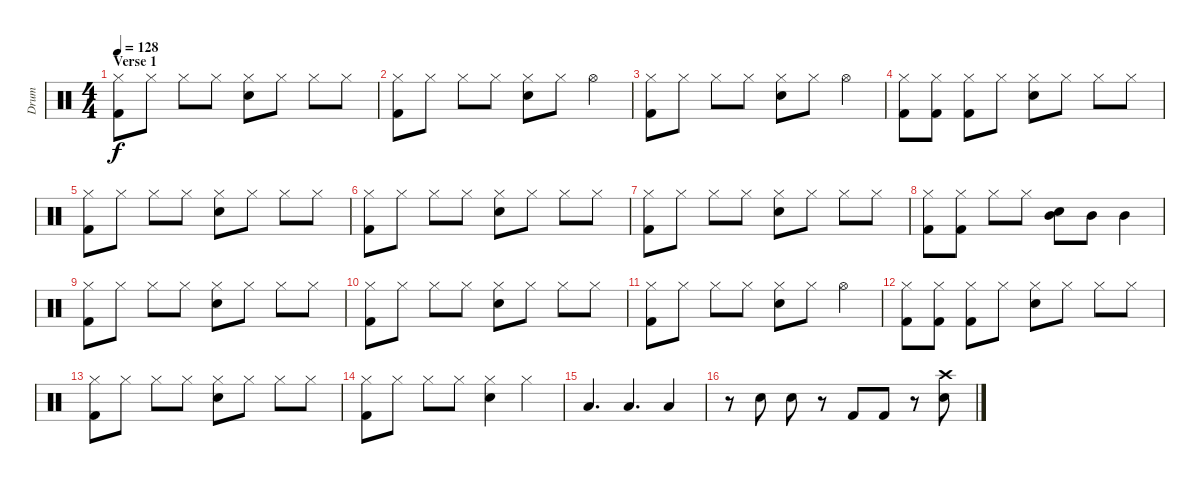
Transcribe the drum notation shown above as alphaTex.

\track ("Drum" "Drum") {instrument percussion}
\staff {score}
\articulation defaults
\ts (4 4)
\section ("" "Verse 1")
\tempo 128
\clef neutral
\ks c
("Hi-Hat (closed)" "Kick (hit) 2").8{dy f} "Hi-Hat (closed)".8 "Hi-Hat (closed)".8 "Hi-Hat (closed)".8 ("Hi-Hat (closed)" "Snare (hit) 2").8 "Hi-Hat (closed)".8 "Hi-Hat (closed)".8 "Hi-Hat (closed)".8 |
("Hi-Hat (closed)" "Kick (hit) 2").8 "Hi-Hat (closed)".8 "Hi-Hat (closed)".8 "Hi-Hat (closed)".8 ("Hi-Hat (closed)" "Snare (hit) 2").8 "Hi-Hat (closed)".8 "Hi-Hat (open)".4 |
("Hi-Hat (closed)" "Kick (hit) 2").8 "Hi-Hat (closed)".8 "Hi-Hat (closed)".8 "Hi-Hat (closed)".8 ("Hi-Hat (closed)" "Snare (hit) 2").8 "Hi-Hat (closed)".8 "Hi-Hat (open)".4 |
("Hi-Hat (closed)" "Kick (hit) 2").8 ("Hi-Hat (closed)" "Kick (hit) 2").8 ("Hi-Hat (closed)" "Kick (hit) 2").8 "Hi-Hat (closed)".8 ("Hi-Hat (closed)" "Snare (hit) 2").8 "Hi-Hat (closed)".8 "Hi-Hat (closed)".8 "Hi-Hat (closed)".8 |
("Hi-Hat (closed)" "Kick (hit) 2").8 "Hi-Hat (closed)".8 "Hi-Hat (closed)".8 "Hi-Hat (closed)".8 ("Hi-Hat (closed)" "Snare (hit) 2").8 "Hi-Hat (closed)".8 "Hi-Hat (closed)".8 "Hi-Hat (closed)".8 |
("Hi-Hat (closed)" "Kick (hit) 2").8 "Hi-Hat (closed)".8 "Hi-Hat (closed)".8 "Hi-Hat (closed)".8 ("Hi-Hat (closed)" "Snare (hit) 2").8 "Hi-Hat (closed)".8 "Hi-Hat (closed)".8 "Hi-Hat (closed)".8 |
("Hi-Hat (closed)" "Kick (hit) 2").8 "Hi-Hat (closed)".8 "Hi-Hat (closed)".8 "Hi-Hat (closed)".8 ("Hi-Hat (closed)" "Snare (hit) 2").8 "Hi-Hat (closed)".8 "Hi-Hat (closed)".8 "Hi-Hat (closed)".8 |
("Hi-Hat (closed)" "Kick (hit) 2").8 ("Hi-Hat (closed)" "Kick (hit) 2").8 "Hi-Hat (closed)".8 "Hi-Hat (closed)".8 ("Mid Tom (hit)" "Snare (hit) 2").8 "Mid Tom (hit)".8 "Mid Tom (hit)".4 |
("Hi-Hat (closed)" "Kick (hit) 2").8 "Hi-Hat (closed)".8 "Hi-Hat (closed)".8 "Hi-Hat (closed)".8 ("Hi-Hat (closed)" "Snare (hit) 2").8 "Hi-Hat (closed)".8 "Hi-Hat (closed)".8 "Hi-Hat (closed)".8 |
("Hi-Hat (closed)" "Kick (hit) 2").8 "Hi-Hat (closed)".8 "Hi-Hat (closed)".8 "Hi-Hat (closed)".8 ("Hi-Hat (closed)" "Snare (hit) 2").8 "Hi-Hat (closed)".8 "Hi-Hat (closed)".8 "Hi-Hat (closed)".8 |
("Hi-Hat (closed)" "Kick (hit) 2").8 "Hi-Hat (closed)".8 "Hi-Hat (closed)".8 "Hi-Hat (closed)".8 ("Hi-Hat (closed)" "Snare (hit) 2").8 "Hi-Hat (closed)".8 "Hi-Hat (open)".4 |
("Hi-Hat (closed)" "Kick (hit) 2").8 ("Hi-Hat (closed)" "Kick (hit) 2").8 ("Hi-Hat (closed)" "Kick (hit) 2").8 "Hi-Hat (closed)".8 ("Hi-Hat (closed)" "Snare (hit) 2").8 "Hi-Hat (closed)".8 "Hi-Hat (closed)".8 "Hi-Hat (closed)".8 |
("Hi-Hat (closed)" "Kick (hit) 2").8 "Hi-Hat (closed)".8 "Hi-Hat (closed)".8 "Hi-Hat (closed)".8 ("Hi-Hat (closed)" "Snare (hit) 2").8 "Hi-Hat (closed)".8 "Hi-Hat (closed)".8 "Hi-Hat (closed)".8 |
("Hi-Hat (closed)" "Kick (hit) 2").8 "Hi-Hat (closed)".8 "Hi-Hat (closed)".8 "Hi-Hat (closed)".8 ("Hi-Hat (closed)" "Snare (hit) 2").4 "Hi-Hat (closed)".4 |
"Low Tom (hit)".4{d} "Low Tom (hit)".4{d} "Low Tom (hit)".4 |
r.8 "Snare (hit) 2".8 "Snare (hit) 2".8 r.8 "Kick (hit) 2".8 "Kick (hit) 2".8 r.8 ("Crash high (hit)" "Snare (hit) 2").8
